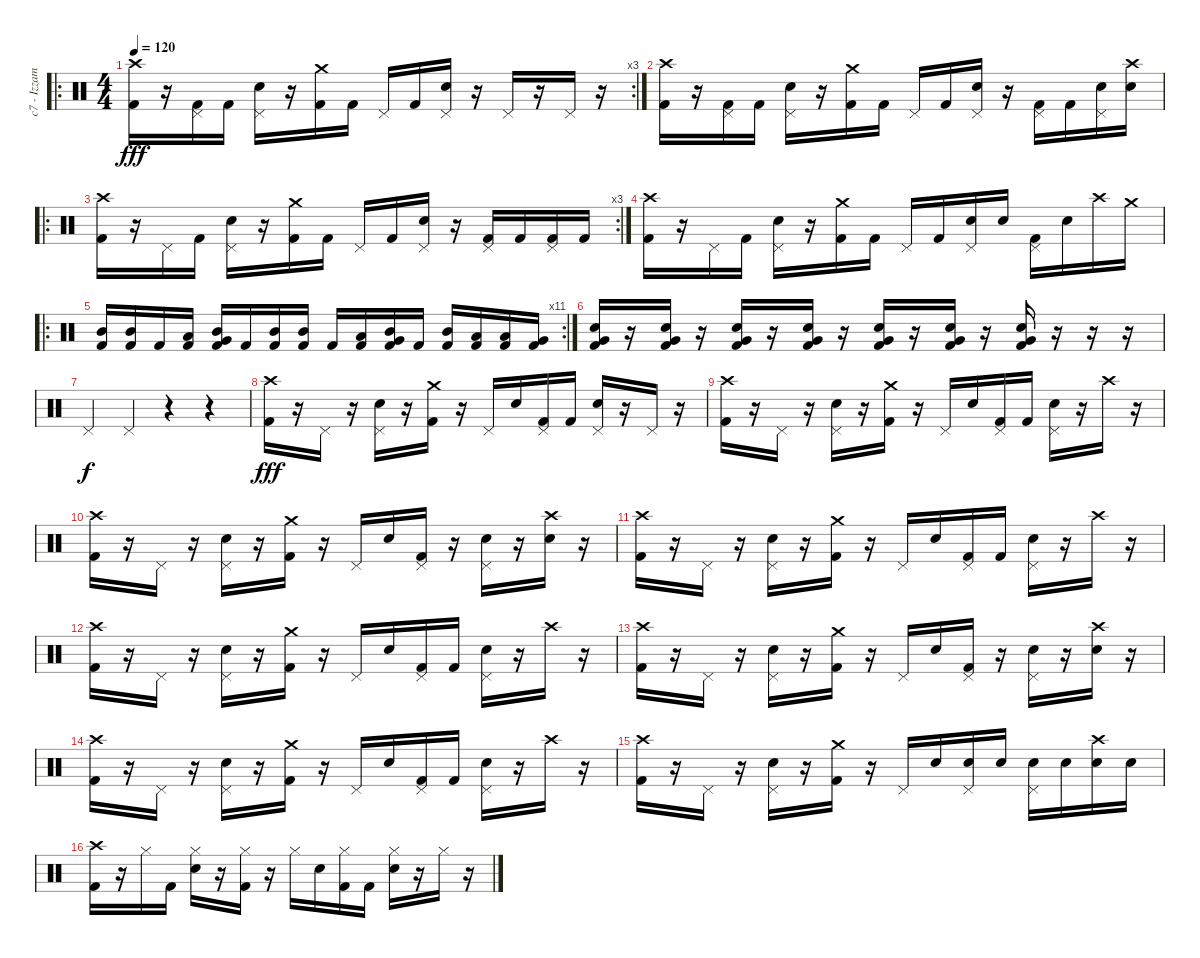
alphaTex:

\track ("c7 - Izzam - Drums" "c7 - Izzam") {instrument percussion}
\staff {score}
\articulation defaults
\ro
\rc 3
\ts (4 4)
\tempo 120
\clef neutral
\ks c
("Crash high (hit)" "Kick (hit) 2").16{dy fff} r.16 ("Pedal Hi-Hat (hit)" "Kick (hit) 2").16 "Kick (hit) 2".16 ("Pedal Hi-Hat (hit)" "Electric Snare (hit)").16 r.16 ("Crash medium (hit)" "Kick (hit) 2").16 "Kick (hit) 2".16 "Pedal Hi-Hat (hit)".16 "Kick (hit) 2".16 ("Pedal Hi-Hat (hit)" "Electric Snare (hit)").16 r.16 "Pedal Hi-Hat (hit)".16 r.16 "Pedal Hi-Hat (hit)".16 r.16 |
("Crash high (hit)" "Kick (hit) 2").16 r.16 ("Pedal Hi-Hat (hit)" "Kick (hit) 2").16 "Kick (hit) 2".16 ("Pedal Hi-Hat (hit)" "Electric Snare (hit)").16 r.16 ("Crash medium (hit)" "Kick (hit) 2").16 "Kick (hit) 2".16 "Pedal Hi-Hat (hit)".16 "Kick (hit) 2".16 ("Pedal Hi-Hat (hit)" "Electric Snare (hit)").16 r.16 ("Pedal Hi-Hat (hit)" "Kick (hit) 2").16 "Kick (hit) 2".16 ("Pedal Hi-Hat (hit)" "Electric Snare (hit)").16 ("Crash high (hit)" "Electric Snare (hit)").16 |
\ro
\rc 3
("Crash high (hit)" "Kick (hit) 2").16 r.16 "Pedal Hi-Hat (hit)".16 "Kick (hit) 2".16 ("Pedal Hi-Hat (hit)" "Electric Snare (hit)").16 r.16 ("Crash medium (hit)" "Kick (hit) 2").16 "Kick (hit) 2".16 "Pedal Hi-Hat (hit)".16 "Kick (hit) 2".16 ("Pedal Hi-Hat (hit)" "Electric Snare (hit)").16 r.16 ("Pedal Hi-Hat (hit)" "Kick (hit) 2").16 "Kick (hit) 2".16 ("Pedal Hi-Hat (hit)" "Kick (hit) 2").16 "Kick (hit) 2".16 |
("Crash high (hit)" "Kick (hit) 2").16 r.16 "Pedal Hi-Hat (hit)".16 "Kick (hit) 2".16 ("Pedal Hi-Hat (hit)" "Electric Snare (hit)").16 r.16 ("Crash medium (hit)" "Kick (hit) 2").16 "Kick (hit) 2".16 "Pedal Hi-Hat (hit)".16 "Kick (hit) 2".16 ("Pedal Hi-Hat (hit)" "Electric Snare (hit)").16 "Electric Snare (hit)".16 ("Pedal Hi-Hat (hit)" "Kick (hit) 2").16 "Electric Snare (hit)".16 "Crash high (hit)".16 "Crash medium (hit)".16 |
\ro
\rc 11
("Mid Tom (hit)" "Kick (hit) 2").16 ("Mid Tom (hit)" "Kick (hit) 2").16 "Kick (hit) 2".16 ("Low Tom (hit)" "Kick (hit) 2").16 ("Mid Tom (hit)" "Very Low Tom (hit)" "Kick (hit) 2").16 "Kick (hit) 2".16 ("Mid Tom (hit)" "Kick (hit) 2").16 ("Mid Tom (hit)" "Kick (hit) 2").16 "Kick (hit) 2".16 ("Low Tom (hit)" "Kick (hit) 2").16 ("Mid Tom (hit)" "Very Low Tom (hit)" "Kick (hit) 2").16 "Kick (hit) 2".16 ("Mid Tom (hit)" "Kick (hit) 2").16 ("Low Tom (hit)" "Kick (hit) 2").16 ("Low Tom (hit)" "Kick (hit) 2").16 ("Very Low Tom (hit)" "Kick (hit) 2").16 |
("Very Low Tom (hit)" "Electric Snare (hit)" "Kick (hit) 2").16 r.16 ("Very Low Tom (hit)" "Electric Snare (hit)" "Kick (hit) 2").16 r.16 ("Very Low Tom (hit)" "Electric Snare (hit)" "Kick (hit) 2").16 r.16 ("Very Low Tom (hit)" "Electric Snare (hit)" "Kick (hit) 2").16 r.16 ("Very Low Tom (hit)" "Electric Snare (hit)" "Kick (hit) 2").16 r.16 ("Very Low Tom (hit)" "Electric Snare (hit)" "Kick (hit) 2").16 r.16 ("Very Low Tom (hit)" "Electric Snare (hit)" "Kick (hit) 2").16 r.16 r.16 r.16 |
"Pedal Hi-Hat (hit)".4{dy f} "Pedal Hi-Hat (hit)".4 r.4 r.4 |
("Crash high (hit)" "Kick (hit) 2").16{dy fff} r.16 "Pedal Hi-Hat (hit)".16 r.16 ("Pedal Hi-Hat (hit)" "Electric Snare (hit)").16 r.16 ("Crash medium (hit)" "Kick (hit) 2").16 r.16 "Pedal Hi-Hat (hit)".16 "Electric Snare (hit)".16 ("Pedal Hi-Hat (hit)" "Kick (hit) 2").16 "Kick (hit) 2".16 ("Pedal Hi-Hat (hit)" "Electric Snare (hit)").16 r.16 "Pedal Hi-Hat (hit)".16 r.16 |
("Crash high (hit)" "Kick (hit) 2").16 r.16 "Pedal Hi-Hat (hit)".16 r.16 ("Pedal Hi-Hat (hit)" "Electric Snare (hit)").16 r.16 ("Crash medium (hit)" "Kick (hit) 2").16 r.16 "Pedal Hi-Hat (hit)".16 "Electric Snare (hit)".16 ("Pedal Hi-Hat (hit)" "Kick (hit) 2").16 "Kick (hit) 2".16 ("Pedal Hi-Hat (hit)" "Electric Snare (hit)").16 r.16 "Crash high (hit)".16 r.16 |
("Crash high (hit)" "Kick (hit) 2").16 r.16 "Pedal Hi-Hat (hit)".16 r.16 ("Pedal Hi-Hat (hit)" "Electric Snare (hit)").16 r.16 ("Crash medium (hit)" "Kick (hit) 2").16 r.16 "Pedal Hi-Hat (hit)".16 "Electric Snare (hit)".16 ("Pedal Hi-Hat (hit)" "Kick (hit) 2").16 r.16 ("Pedal Hi-Hat (hit)" "Electric Snare (hit)").16 r.16 ("Crash high (hit)" "Electric Snare (hit)").16 r.16 |
("Crash high (hit)" "Kick (hit) 2").16 r.16 "Pedal Hi-Hat (hit)".16 r.16 ("Pedal Hi-Hat (hit)" "Electric Snare (hit)").16 r.16 ("Crash medium (hit)" "Kick (hit) 2").16 r.16 "Pedal Hi-Hat (hit)".16 "Electric Snare (hit)".16 ("Pedal Hi-Hat (hit)" "Kick (hit) 2").16 "Kick (hit) 2".16 ("Pedal Hi-Hat (hit)" "Electric Snare (hit)").16 r.16 "Crash high (hit)".16 r.16 |
("Crash high (hit)" "Kick (hit) 2").16 r.16 "Pedal Hi-Hat (hit)".16 r.16 ("Pedal Hi-Hat (hit)" "Electric Snare (hit)").16 r.16 ("Crash medium (hit)" "Kick (hit) 2").16 r.16 "Pedal Hi-Hat (hit)".16 "Electric Snare (hit)".16 ("Pedal Hi-Hat (hit)" "Kick (hit) 2").16 "Kick (hit) 2".16 ("Pedal Hi-Hat (hit)" "Electric Snare (hit)").16 r.16 "Crash high (hit)".16 r.16 |
("Crash high (hit)" "Kick (hit) 2").16 r.16 "Pedal Hi-Hat (hit)".16 r.16 ("Pedal Hi-Hat (hit)" "Electric Snare (hit)").16 r.16 ("Crash medium (hit)" "Kick (hit) 2").16 r.16 "Pedal Hi-Hat (hit)".16 "Electric Snare (hit)".16 ("Pedal Hi-Hat (hit)" "Kick (hit) 2").16 r.16 ("Pedal Hi-Hat (hit)" "Electric Snare (hit)").16 r.16 ("Crash high (hit)" "Electric Snare (hit)").16 r.16 |
("Crash high (hit)" "Kick (hit) 2").16 r.16 "Pedal Hi-Hat (hit)".16 r.16 ("Pedal Hi-Hat (hit)" "Electric Snare (hit)").16 r.16 ("Crash medium (hit)" "Kick (hit) 2").16 r.16 "Pedal Hi-Hat (hit)".16 "Electric Snare (hit)".16 ("Pedal Hi-Hat (hit)" "Kick (hit) 2").16 "Kick (hit) 2".16 ("Pedal Hi-Hat (hit)" "Electric Snare (hit)").16 r.16 "Crash high (hit)".16 r.16 |
("Crash high (hit)" "Kick (hit) 2").16 r.16 "Pedal Hi-Hat (hit)".16 r.16 ("Pedal Hi-Hat (hit)" "Electric Snare (hit)").16 r.16 ("Crash medium (hit)" "Kick (hit) 2").16 r.16 "Pedal Hi-Hat (hit)".16 "Electric Snare (hit)".16 ("Pedal Hi-Hat (hit)" "Electric Snare (hit)").16 "Electric Snare (hit)".16 ("Pedal Hi-Hat (hit)" "Electric Snare (hit)").16 "Electric Snare (hit)".16 ("Crash high (hit)" "Electric Snare (hit)").16 "Electric Snare (hit)".16 |
("Crash high (hit)" "Kick (hit) 2").16 r.16 "Hi-Hat (closed)".16 "Kick (hit) 2".16 ("Hi-Hat (closed)" "Electric Snare (hit)").16 r.16 ("Hi-Hat (closed)" "Kick (hit) 2").16 r.16 "Hi-Hat (closed)".16 "Electric Snare (hit)".16 ("Hi-Hat (closed)" "Kick (hit) 2").16 "Kick (hit) 2".16 ("Hi-Hat (closed)" "Electric Snare (hit)").16 r.16 "Hi-Hat (closed)".16 r.16
